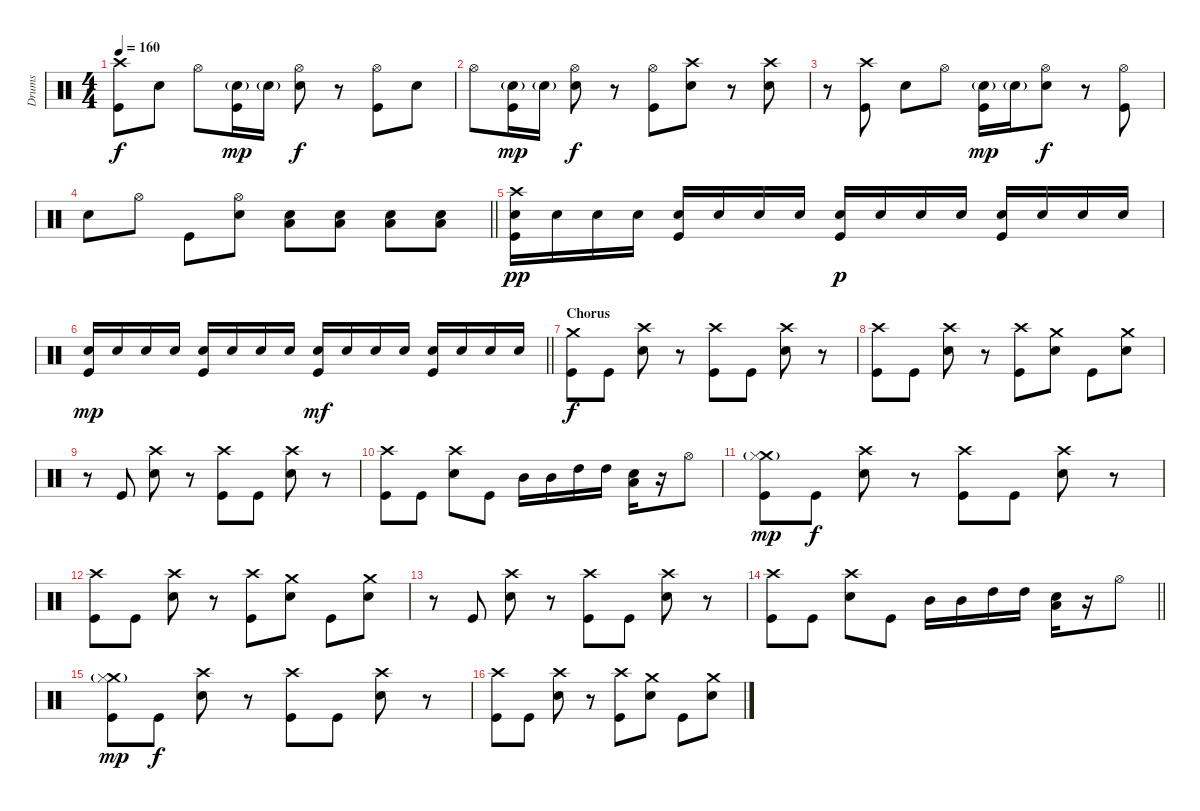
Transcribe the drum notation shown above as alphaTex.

\track ("Drums" "Drums") {instrument percussion}
\staff {score}
\articulation defaults
\ts (4 4)
\tempo 160
\clef neutral
\ks c
("Crash high (hit)" "Kick (hit)").8{dy f} "Snare (hit) 2".8 "Hi-Hat (open)".8 ("Snare (hit) 2"{g} "Kick (hit)").16{dy mp} "Snare (hit) 2"{g}.16 ("Hi-Hat (open)" "Snare (hit) 2").8{dy f} r.8 ("Hi-Hat (open)" "Kick (hit)").8 "Snare (hit) 2".8 |
"Hi-Hat (open)".8 ("Snare (hit) 2"{g} "Kick (hit)").16{dy mp} "Snare (hit) 2"{g}.16 ("Hi-Hat (open)" "Snare (hit) 2").8{dy f} r.8 ("Hi-Hat (open)" "Kick (hit)").8 ("Crash high (hit)" "Snare (hit) 2").8 r.8 ("Crash high (hit)" "Snare (hit) 2").8 |
r.8 ("Crash high (hit)" "Kick (hit)").8 "Snare (hit) 2".8 "Hi-Hat (open)".8 ("Snare (hit) 2"{g} "Kick (hit)").16{dy mp} "Snare (hit) 2"{g}.16 ("Hi-Hat (open)" "Snare (hit) 2").8{dy f} r.8 ("Hi-Hat (open)" "Kick (hit)").8 |
\barLineRight lightlight "Snare (hit) 2".8 "Hi-Hat (open)".8 "Kick (hit)".8
("Hi-Hat (open)" "Snare (hit) 2").8 ("Low Floor Tom (hit)" "Snare (hit) 2").8 ("Low Floor Tom (hit)" "Snare (hit) 2").8 ("Low Floor Tom (hit)" "Snare (hit) 2").8 ("Low Floor Tom (hit)" "Snare (hit) 2").8 |
("Crash high (hit)" "Kick (hit)" "Snare (hit) 2").16{dy pp} "Snare (hit) 2".16 "Snare (hit) 2".16 "Snare (hit) 2".16 ("Kick (hit)" "Snare (hit) 2").16 "Snare (hit) 2".16 "Snare (hit) 2".16 "Snare (hit) 2".16 ("Kick (hit)" "Snare (hit) 2").16{dy p} "Snare (hit) 2".16 "Snare (hit) 2".16 "Snare (hit) 2".16 ("Kick (hit)" "Snare (hit) 2").16 "Snare (hit) 2".16 "Snare (hit) 2".16 "Snare (hit) 2".16 |
\barLineRight lightlight
("Kick (hit)" "Snare (hit) 2").16{dy mp} "Snare (hit) 2".16 "Snare (hit) 2".16 "Snare (hit) 2".16 ("Kick (hit)" "Snare (hit) 2").16 "Snare (hit) 2".16 "Snare (hit) 2".16 "Snare (hit) 2".16 ("Kick (hit)" "Snare (hit) 2").16{dy mf} "Snare (hit) 2".16 "Snare (hit) 2".16 "Snare (hit) 2".16 ("Kick (hit)" "Snare (hit) 2").16 "Snare (hit) 2".16 "Snare (hit) 2".16 "Snare (hit) 2".16 |
\section ("" "Chorus")
("Crash medium (hit)" "Kick (hit)").8{dy f} "Kick (hit)".8 ("Crash high (hit)" "Snare (hit) 2").8 r.8 ("Crash high (hit)" "Kick (hit)").8 "Kick (hit)".8 ("Crash high (hit)" "Snare (hit) 2").8 r.8 |
("Crash high (hit)" "Kick (hit)").8 "Kick (hit)".8 ("Crash high (hit)" "Snare (hit) 2").8 r.8 ("Crash high (hit)" "Kick (hit)").8 ("Crash medium (hit)" "Snare (hit) 2").8 "Kick (hit)".8 ("Crash medium (hit)" "Snare (hit) 2").8 |
r.8 "Kick (hit)".8 ("Crash high (hit)" "Snare (hit) 2").8 r.8 ("Crash high (hit)" "Kick (hit)").8 "Kick (hit)".8 ("Crash high (hit)" "Snare (hit) 2").8 r.8 |
("Crash high (hit)" "Kick (hit)").8 "Kick (hit)".8 ("Crash high (hit)" "Snare (hit) 2").8 "Kick (hit)".8 "Mid Tom (hit)".16 "Mid Tom (hit)".16 "High Tom (hit)".16 "High Tom (hit)".16 ("Low Floor Tom (hit)" "Snare (hit) 2").16 r.16 "Hi-Hat (open)".8 |
("Crash medium (hit)" "Kick (hit)" "Hi-Hat (closed)"{g}).8{dy mp} "Kick (hit)".8{dy f} ("Crash high (hit)" "Snare (hit) 2").8 r.8 ("Crash high (hit)" "Kick (hit)").8 "Kick (hit)".8 ("Crash high (hit)" "Snare (hit) 2").8 r.8 |
("Crash high (hit)" "Kick (hit)").8 "Kick (hit)".8 ("Crash high (hit)" "Snare (hit) 2").8 r.8 ("Crash high (hit)" "Kick (hit)").8 ("Crash medium (hit)" "Snare (hit) 2").8 "Kick (hit)".8 ("Crash medium (hit)" "Snare (hit) 2").8 |
r.8 "Kick (hit)".8 ("Crash high (hit)" "Snare (hit) 2").8 r.8 ("Crash high (hit)" "Kick (hit)").8 "Kick (hit)".8 ("Crash high (hit)" "Snare (hit) 2").8 r.8 |
\barLineRight lightlight
("Crash high (hit)" "Kick (hit)").8 "Kick (hit)".8 ("Crash high (hit)" "Snare (hit) 2").8 "Kick (hit)".8 "Mid Tom (hit)".16 "Mid Tom (hit)".16 "High Tom (hit)".16 "High Tom (hit)".16 ("Low Floor Tom (hit)" "Snare (hit) 2").16 r.16 "Hi-Hat (open)".8 |
("Crash medium (hit)" "Kick (hit)" "Hi-Hat (closed)"{g}).8{dy mp} "Kick (hit)".8{dy f} ("Crash high (hit)" "Snare (hit) 2").8 r.8 ("Crash high (hit)" "Kick (hit)").8 "Kick (hit)".8 ("Crash high (hit)" "Snare (hit) 2").8 r.8 |
("Crash high (hit)" "Kick (hit)").8 "Kick (hit)".8 ("Crash high (hit)" "Snare (hit) 2").8 r.8 ("Crash high (hit)" "Kick (hit)").8 ("Crash medium (hit)" "Snare (hit) 2").8 "Kick (hit)".8 ("Crash medium (hit)" "Snare (hit) 2").8
